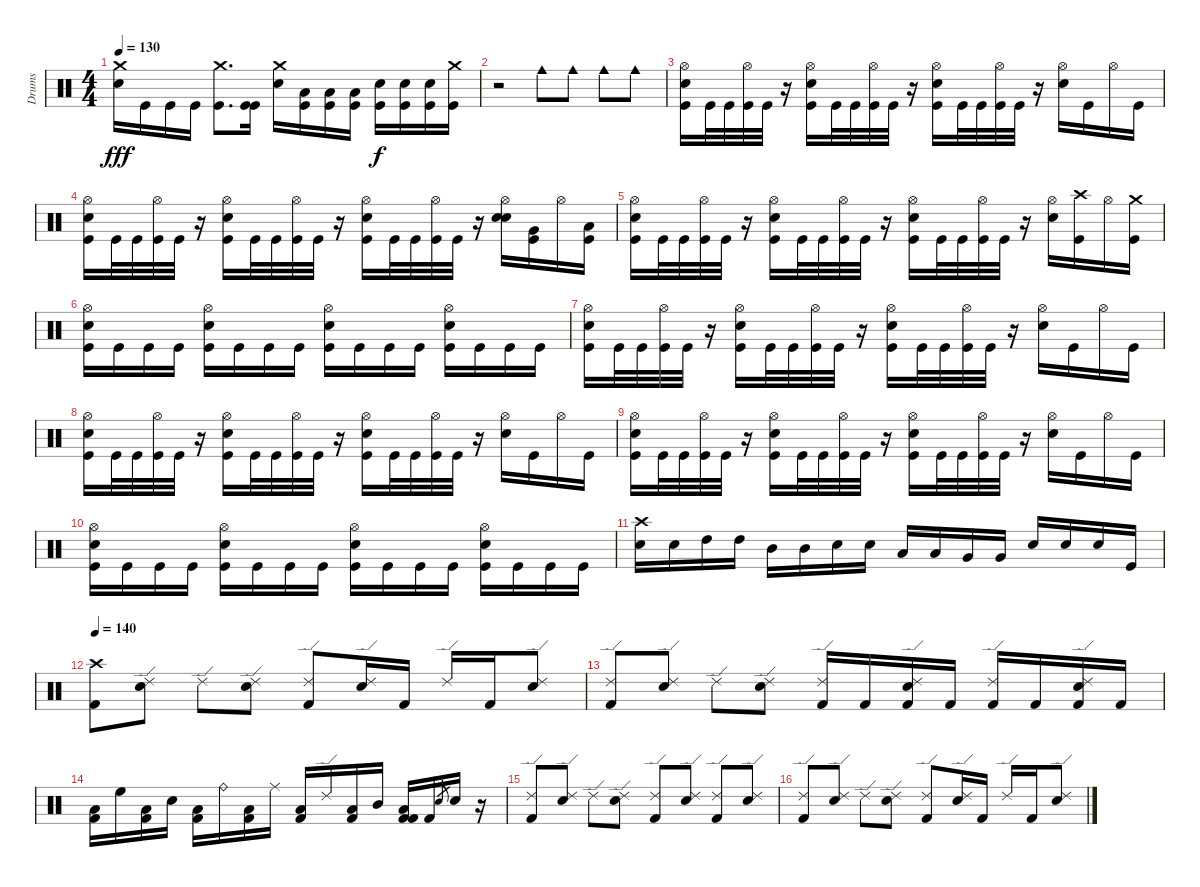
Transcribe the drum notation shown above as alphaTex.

\track ("Drums" "Drums") {instrument percussion}
\staff {score}
\articulation defaults
\ts (4 4)
\tempo 130
\clef neutral
\ks c
("Crash medium (hit)" "Snare (hit) 2").16{dy fff} "Kick (hit)".16 "Kick (hit)".16 "Kick (hit)".16 ("Crash medium (hit)" "Kick (hit)").8{d} ("Kick (hit)" "Kick (hit)").16 ("Crash medium (hit)" "Snare (hit) 2").16 ("Low Floor Tom (hit)" "Kick (hit)").16 ("Low Floor Tom (hit)" "Kick (hit)").16 ("Kick (hit)" "Low Floor Tom (hit)").16 ("Kick (hit)" "Snare (hit) 2").16{dy f} ("Kick (hit)" "Snare (hit) 2").16 ("Kick (hit)" "Snare (hit) 2").16 ("Kick (hit)" "Crash medium (hit)").16 |
r.2 "Cowbell medium (hit)".8 "Cowbell medium (hit)".8 "Cowbell medium (hit)".8 "Cowbell medium (hit)".8 |
("Hi-Hat (open)" "Snare (hit) 2" "Kick (hit)").16 "Kick (hit)".32 "Kick (hit)".32 ("Hi-Hat (open)" "Kick (hit)").32 "Kick (hit)".32 r.16 ("Hi-Hat (open)" "Snare (hit) 2" "Kick (hit)").16 "Kick (hit)".32 "Kick (hit)".32 ("Hi-Hat (open)" "Kick (hit)").32 "Kick (hit)".32 r.16 ("Hi-Hat (open)" "Snare (hit) 2" "Kick (hit)").16 "Kick (hit)".32 "Kick (hit)".32 ("Hi-Hat (open)" "Kick (hit)").32 "Kick (hit)".32 r.16 ("Hi-Hat (open)" "Snare (hit) 2").16 "Kick (hit)".16 "Hi-Hat (open)".16 "Kick (hit)".16 |
("Hi-Hat (open)" "Snare (hit) 2" "Kick (hit)").16 "Kick (hit)".32 "Kick (hit)".32 ("Hi-Hat (open)" "Kick (hit)").32 "Kick (hit)".32 r.16 ("Hi-Hat (open)" "Snare (hit) 2" "Kick (hit)").16 "Kick (hit)".32 "Kick (hit)".32 ("Hi-Hat (open)" "Kick (hit)").32 "Kick (hit)".32 r.16 ("Hi-Hat (open)" "Snare (hit) 2" "Kick (hit)").16 "Kick (hit)".32 "Kick (hit)".32 ("Hi-Hat (open)" "Kick (hit)").32 "Kick (hit)".32 r.16 ("Hi-Hat (open)" "Snare (hit) 2" "Snare (hit) 2").16 ("Kick (hit)" "Very Low Tom (hit)").16 "Hi-Hat (open)".16 ("Kick (hit)" "Low Floor Tom (hit)").16 |
("Hi-Hat (open)" "Snare (hit) 2" "Kick (hit)").16 "Kick (hit)".32 "Kick (hit)".32 ("Hi-Hat (open)" "Kick (hit)").32 "Kick (hit)".32 r.16 ("Hi-Hat (open)" "Snare (hit) 2" "Kick (hit)").16 "Kick (hit)".32 "Kick (hit)".32 ("Hi-Hat (open)" "Kick (hit)").32 "Kick (hit)".32 r.16 ("Hi-Hat (open)" "Snare (hit) 2" "Kick (hit)").16 "Kick (hit)".32 "Kick (hit)".32 ("Hi-Hat (open)" "Kick (hit)").32 "Kick (hit)".32 r.16 ("Hi-Hat (open)" "Snare (hit) 2").16 ("Kick (hit)" "Crash high (hit)").16 "Hi-Hat (open)".16 ("Kick (hit)" "Crash medium (hit)").16 |
("Hi-Hat (open)" "Snare (hit) 2" "Kick (hit)").16 "Kick (hit)".16 "Kick (hit)".16 "Kick (hit)".16 ("Hi-Hat (open)" "Snare (hit) 2" "Kick (hit)").16 "Kick (hit)".16 "Kick (hit)".16 "Kick (hit)".16 ("Hi-Hat (open)" "Snare (hit) 2" "Kick (hit)").16 "Kick (hit)".16 "Kick (hit)".16 "Kick (hit)".16 ("Hi-Hat (open)" "Snare (hit) 2" "Kick (hit)").16 "Kick (hit)".16 "Kick (hit)".16 "Kick (hit)".16 |
("Hi-Hat (open)" "Snare (hit) 2" "Kick (hit)").16 "Kick (hit)".32 "Kick (hit)".32 ("Hi-Hat (open)" "Kick (hit)").32 "Kick (hit)".32 r.16 ("Hi-Hat (open)" "Snare (hit) 2" "Kick (hit)").16 "Kick (hit)".32 "Kick (hit)".32 ("Hi-Hat (open)" "Kick (hit)").32 "Kick (hit)".32 r.16 ("Hi-Hat (open)" "Snare (hit) 2" "Kick (hit)").16 "Kick (hit)".32 "Kick (hit)".32 ("Hi-Hat (open)" "Kick (hit)").32 "Kick (hit)".32 r.16 ("Hi-Hat (open)" "Snare (hit) 2").16 "Kick (hit)".16 "Hi-Hat (open)".16 "Kick (hit)".16 |
("Hi-Hat (open)" "Snare (hit) 2" "Kick (hit)").16 "Kick (hit)".32 "Kick (hit)".32 ("Hi-Hat (open)" "Kick (hit)").32 "Kick (hit)".32 r.16 ("Hi-Hat (open)" "Snare (hit) 2" "Kick (hit)").16 "Kick (hit)".32 "Kick (hit)".32 ("Hi-Hat (open)" "Kick (hit)").32 "Kick (hit)".32 r.16 ("Hi-Hat (open)" "Snare (hit) 2" "Kick (hit)").16 "Kick (hit)".32 "Kick (hit)".32 ("Hi-Hat (open)" "Kick (hit)").32 "Kick (hit)".32 r.16 ("Hi-Hat (open)" "Snare (hit) 2").16 "Kick (hit)".16 "Hi-Hat (open)".16 "Kick (hit)".16 |
("Hi-Hat (open)" "Snare (hit) 2" "Kick (hit)").16 "Kick (hit)".32 "Kick (hit)".32 ("Hi-Hat (open)" "Kick (hit)").32 "Kick (hit)".32 r.16 ("Hi-Hat (open)" "Snare (hit) 2" "Kick (hit)").16 "Kick (hit)".32 "Kick (hit)".32 ("Hi-Hat (open)" "Kick (hit)").32 "Kick (hit)".32 r.16 ("Hi-Hat (open)" "Snare (hit) 2" "Kick (hit)").16 "Kick (hit)".32 "Kick (hit)".32 ("Hi-Hat (open)" "Kick (hit)").32 "Kick (hit)".32 r.16 ("Hi-Hat (open)" "Snare (hit) 2").16 "Kick (hit)".16 "Hi-Hat (open)".16 "Kick (hit)".16 |
("Hi-Hat (open)" "Snare (hit) 2" "Kick (hit)").16 "Kick (hit)".16 "Kick (hit)".16 "Kick (hit)".16 ("Hi-Hat (open)" "Snare (hit) 2" "Kick (hit)").16 "Kick (hit)".16 "Kick (hit)".16 "Kick (hit)".16 ("Hi-Hat (open)" "Snare (hit) 2" "Kick (hit)").16 "Kick (hit)".16 "Kick (hit)".16 "Kick (hit)".16 ("Hi-Hat (open)" "Snare (hit) 2" "Kick (hit)").16 "Kick (hit)".16 "Kick (hit)".16 "Kick (hit)".16 |
("Crash high (hit)" "Snare (hit) 2").16 "Snare (hit) 2".16 "High Tom (hit)".16 "High Tom (hit)".16 "Mid Tom (hit)".16 "Mid Tom (hit)".16 "Snare (hit) 2".16 "Snare (hit) 2".16 "Low Tom (hit)".16 "Low Tom (hit)".16 "Very Low Tom (hit)".16 "Very Low Tom (hit)".16 "Snare (hit) 2".16 "Snare (hit) 2".16 "Snare (hit) 2".16 "Kick (hit)".16 |
\tempo 140
("Crash high (hit)" "Kick (hit) 2").8 ("Ride (edge) 2" "Snare (hit) 2").8 "Ride (edge) 2".8 ("Ride (edge) 2" "Snare (hit) 2").8 ("Ride (edge) 2" "Kick (hit) 2").8 ("Ride (edge) 2" "Snare (hit) 2").16 "Kick (hit) 2".16 "Ride (edge) 2".16 "Kick (hit) 2".16 ("Ride (edge) 2" "Snare (hit) 2").8 |
("Ride (edge) 2" "Kick (hit) 2").8 ("Ride (edge) 2" "Snare (hit) 2").8 "Ride (edge) 2".8 ("Ride (edge) 2" "Snare (hit) 2").8 ("Ride (edge) 2" "Kick (hit) 2").16 "Kick (hit) 2".16 ("Ride (edge) 2" "Snare (hit) 2" "Kick (hit) 2").16 "Kick (hit) 2".16 ("Ride (edge) 2" "Kick (hit) 2").16 "Kick (hit) 2".16 ("Ride (edge) 2" "Snare (hit) 2" "Kick (hit) 2").16 "Kick (hit) 2".16 |
("Low Tom (hit)" "Kick (hit) 2").16 "High Floor Tom (hit)".16 ("Low Floor Tom (hit)" "Kick (hit) 2").16 "Electric Snare (hit)".16 ("Low Floor Tom (hit)" "Kick (hit) 2").16 "Ride (bell)".16 ("Low Floor Tom (hit)" "Kick (hit) 2").16 "Ride (middle)".16 ("Low Floor Tom (hit)" "Kick (hit) 2").16 "Ride (edge) 2".16 ("Low Floor Tom (hit)" "Kick (hit) 2").16 "Mid Tom (hit)".16 ("Kick (hit) 2" "Low Floor Tom (hit)" "Kick (hit) 2").16 "Kick (hit) 2".16 "Electric Snare (hit)".8{gr} "Electric Snare (hit)".16 r.16 |
("Ride (edge) 2" "Kick (hit) 2").8 ("Ride (edge) 2" "Snare (hit) 2").8 "Ride (edge) 2".8 ("Ride (edge) 2" "Snare (hit) 2").8 ("Ride (edge) 2" "Kick (hit) 2").8 ("Ride (edge) 2" "Snare (hit) 2").8 ("Ride (edge) 2" "Kick (hit) 2").8 ("Ride (edge) 2" "Snare (hit) 2").8 |
("Ride (edge) 2" "Kick (hit) 2").8 ("Ride (edge) 2" "Snare (hit) 2").8 "Ride (edge) 2".8 ("Ride (edge) 2" "Snare (hit) 2").8 ("Ride (edge) 2" "Kick (hit) 2").8 ("Ride (edge) 2" "Snare (hit) 2").16 "Kick (hit) 2".16 "Ride (edge) 2".16 "Kick (hit) 2".16 ("Ride (edge) 2" "Snare (hit) 2").8
